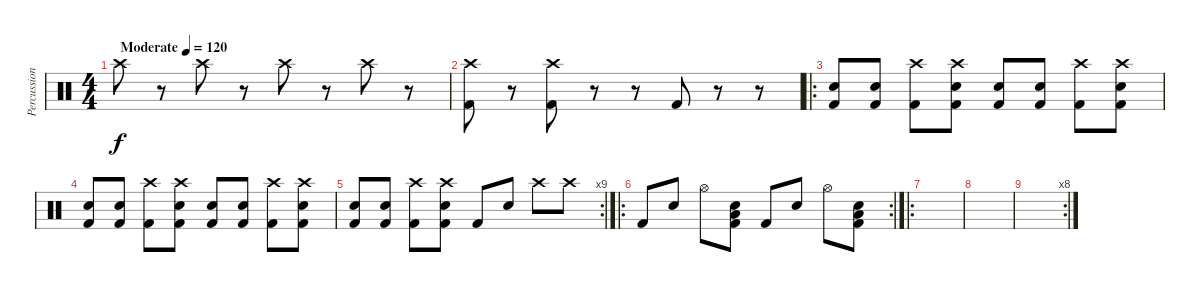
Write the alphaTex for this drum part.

\track ("Percussion" "Percussion") {instrument percussion}
\staff {score}
\articulation defaults
\ts (4 4)
\tempo (120 "Moderate")
\clef neutral
\ks c "Crash high (hit)".8{dy f}
r.8 "Crash high (hit)".8 r.8 "Crash high (hit)".8 r.8 "Crash high (hit)".8 r.8 |
("Crash high (hit)" "Kick (hit) 2").8 r.8 ("Crash high (hit)" "Kick (hit) 2").8 r.8 r.8 "Kick (hit) 2".8 r.8 r.8 |
\ro
("Snare (hit) 2" "Kick (hit) 2").8 ("Snare (hit) 2" "Kick (hit) 2").8 ("Crash high (hit)" "Kick (hit) 2").8 ("Crash high (hit)" "Snare (hit) 2" "Kick (hit) 2").8 ("Snare (hit) 2" "Kick (hit) 2").8 ("Snare (hit) 2" "Kick (hit) 2").8 ("Crash high (hit)" "Kick (hit) 2").8 ("Crash high (hit)" "Snare (hit) 2" "Kick (hit) 2").8 |
("Snare (hit) 2" "Kick (hit) 2").8 ("Snare (hit) 2" "Kick (hit) 2").8 ("Crash high (hit)" "Kick (hit) 2").8 ("Crash high (hit)" "Snare (hit) 2" "Kick (hit) 2").8 ("Snare (hit) 2" "Kick (hit) 2").8 ("Snare (hit) 2" "Kick (hit) 2").8 ("Crash high (hit)" "Kick (hit) 2").8 ("Crash high (hit)" "Snare (hit) 2" "Kick (hit) 2").8 |
\rc 9
("Snare (hit) 2" "Kick (hit) 2").8 ("Snare (hit) 2" "Kick (hit) 2").8 ("Crash high (hit)" "Kick (hit) 2").8 ("Crash high (hit)" "Snare (hit) 2" "Kick (hit) 2").8 "Kick (hit) 2".8 "Snare (hit) 2".8 "Crash high (hit)".8 "Crash high (hit)".8 |
\ro
\rc 2 "Kick (hit) 2".8 "Snare (hit) 2".8 "Hi-Hat (open)".8
("Low Tom (hit)" "Snare (hit) 2" "Kick (hit) 2").8 "Kick (hit) 2".8 "Snare (hit) 2".8 "Hi-Hat (open)".8 ("Low Tom (hit)" "Snare (hit) 2" "Kick (hit) 2").8 |
\ro
|
|
\rc 8
